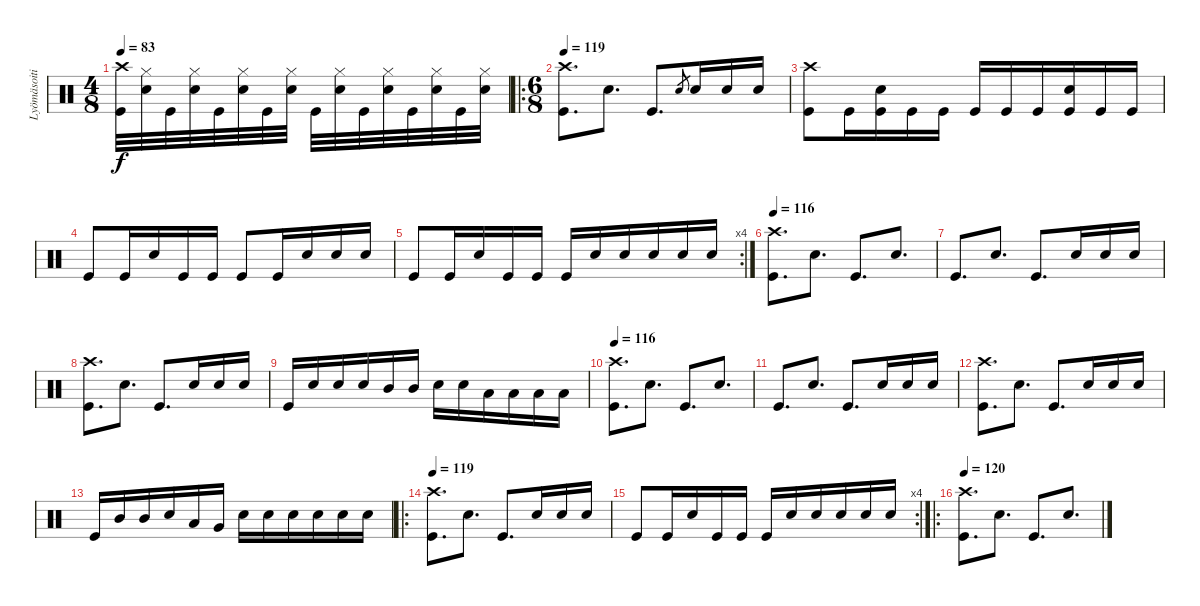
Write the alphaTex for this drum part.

\track ("Lyömäsoitin" "Lyömäsoiti") {instrument percussion}
\staff {score}
\articulation defaults
\ts (4 8)
\tempo 83
\clef neutral
\ks c
("Kick (hit)" "Crash high (hit)").32{dy f} ("Snare (hit) 2" "Hi-Hat (closed)").32 "Kick (hit)".32 ("Snare (hit) 2" "Hi-Hat (closed)").32 "Kick (hit)".32 ("Snare (hit) 2" "Hi-Hat (closed)").32 "Kick (hit)".32 ("Snare (hit) 2" "Hi-Hat (closed)").32 "Kick (hit)".32 ("Snare (hit) 2" "Hi-Hat (closed)").32 "Kick (hit)".32 ("Snare (hit) 2" "Hi-Hat (closed)").32 "Kick (hit)".32 ("Snare (hit) 2" "Hi-Hat (closed)").32 "Kick (hit)".32 ("Snare (hit) 2" "Hi-Hat (closed)").32 |
\ro
\ts (6 8)
\tempo 119
("Kick (hit)" "Crash high (hit)").8{d} "Snare (hit) 2".8{d} "Kick (hit)".8{d} "Snare (hit) 2".8{gr} "Snare (hit) 2".16 "Snare (hit) 2".16 "Snare (hit) 2".16 |
("Kick (hit)" "Crash high (hit)").8 "Kick (hit)".16 ("Kick (hit)" "Snare (hit) 2").16 "Kick (hit)".16 "Kick (hit)".16 "Kick (hit)".16 "Kick (hit)".16 "Kick (hit)".16 ("Kick (hit)" "Snare (hit) 2").16 "Kick (hit)".16 "Kick (hit)".16 |
"Kick (hit)".8 "Kick (hit)".16 "Snare (hit) 2".16 "Kick (hit)".16 "Kick (hit)".16 "Kick (hit)".8 "Kick (hit)".16 "Snare (hit) 2".16 "Snare (hit) 2".16 "Snare (hit) 2".16 |
\rc 4 "Kick (hit)".8 "Kick (hit)".16 "Snare (hit) 2".16 "Kick (hit)".16 "Kick (hit)".16 "Kick (hit)".16 "Snare (hit) 2".16 "Snare (hit) 2".16 "Snare (hit) 2".16 "Snare (hit) 2".16 "Snare (hit) 2".16
|
\tempo 116
("Kick (hit)" "Crash high (hit)").8{d} "Snare (hit) 2".8{d} "Kick (hit)".8{d} "Snare (hit) 2".8{d} |
"Kick (hit)".8{d} "Snare (hit) 2".8{d} "Kick (hit)".8{d} "Snare (hit) 2".16 "Snare (hit) 2".16 "Snare (hit) 2".16 |
("Kick (hit)" "Crash high (hit)").8{d} "Snare (hit) 2".8{d} "Kick (hit)".8{d} "Snare (hit) 2".16 "Snare (hit) 2".16 "Snare (hit) 2".16 |
"Kick (hit)".16 "Snare (hit) 2".16 "Snare (hit) 2".16 "Snare (hit) 2".16 "Mid Tom (hit)".16 "Mid Tom (hit)".16 "Snare (hit) 2".16 "Snare (hit) 2".16 "Low Tom (hit)".16 "Low Tom (hit)".16 "Low Tom (hit)".16 "Low Floor Tom (hit)".16 |
\tempo 116
("Kick (hit)" "Crash high (hit)").8{d} "Snare (hit) 2".8{d} "Kick (hit)".8{d} "Snare (hit) 2".8{d} |
"Kick (hit)".8{d} "Snare (hit) 2".8{d} "Kick (hit)".8{d} "Snare (hit) 2".16 "Snare (hit) 2".16 "Snare (hit) 2".16 |
("Kick (hit)" "Crash high (hit)").8{d} "Snare (hit) 2".8{d} "Kick (hit)".8{d} "Snare (hit) 2".16 "Snare (hit) 2".16 "Snare (hit) 2".16 |
"Kick (hit)".16 "Mid Tom (hit)".16 "Mid Tom (hit)".16 "Snare (hit) 2".16 "Low Tom (hit)".16 "Very Low Tom (hit)".16 "Snare (hit) 2".16 "Snare (hit) 2".16 "Snare (hit) 2".16 "Snare (hit) 2".16 "Snare (hit) 2".16 "Snare (hit) 2".16 |
\ro
\tempo 119
("Kick (hit)" "Crash high (hit)").8{d} "Snare (hit) 2".8{d} "Kick (hit)".8{d} "Snare (hit) 2".16 "Snare (hit) 2".16 "Snare (hit) 2".16 |
\rc 4 "Kick (hit)".8 "Kick (hit)".16 "Snare (hit) 2".16 "Kick (hit)".16 "Kick (hit)".16 "Kick (hit)".16 "Snare (hit) 2".16 "Snare (hit) 2".16 "Snare (hit) 2".16 "Snare (hit) 2".16 "Snare (hit) 2".16
|
\ro
\tempo 120
("Kick (hit)" "Crash high (hit)").8{d} "Snare (hit) 2".8{d} "Kick (hit)".8{d} "Snare (hit) 2".8{d}
